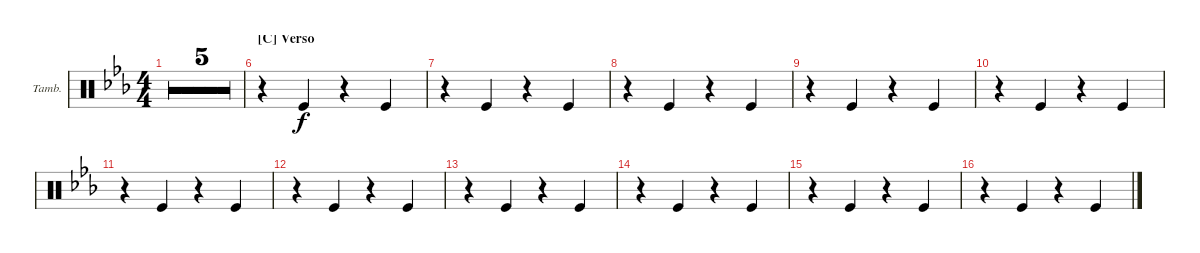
\defaultSystemsLayout 4
\bracketExtendMode groupsimilarinstruments
\firstSystemTrackNameOrientation horizontal
\otherSystemsTrackNameOrientation horizontal
\track ("Tambourine" "Tamb.") {multiBarRest instrument percussion}
\staff {score}
\articulation defaults
\ts (4 4)
\tempo 65
\clef neutral
\scale
0.943253
\ks cminor
|
\scale
0.943253 |
\scale
0.943253 |
\scale
0.943253 |
\scale
0.943253 |
\section ("C" "Verso")
\scale
1.05675 r.4 "Kick (hit)".4 r.4 "Kick (hit)".4 |
\scale
0.943253 r.4 "Kick (hit)".4 r.4 "Kick (hit)".4 |
\scale
1.05675 r.4 "Kick (hit)".4 r.4 "Kick (hit)".4 |
\scale
0.943253 r.4 "Kick (hit)".4 r.4 "Kick (hit)".4 |
\scale
1.05675 r.4 "Kick (hit)".4 r.4 "Kick (hit)".4 |
\scale
0.943253 r.4 "Kick (hit)".4 r.4 "Kick (hit)".4 |
\scale
1.05675 r.4 "Kick (hit)".4 r.4 "Kick (hit)".4 |
\scale
0.943253 r.4 "Kick (hit)".4 r.4 "Kick (hit)".4 |
\scale
1.05675 r.4 "Kick (hit)".4 r.4 "Kick (hit)".4 |
\scale
0.943253 r.4 "Kick (hit)".4 r.4 "Kick (hit)".4 |
\scale
1.05675 r.4 "Kick (hit)".4 r.4 "Kick (hit)".4
